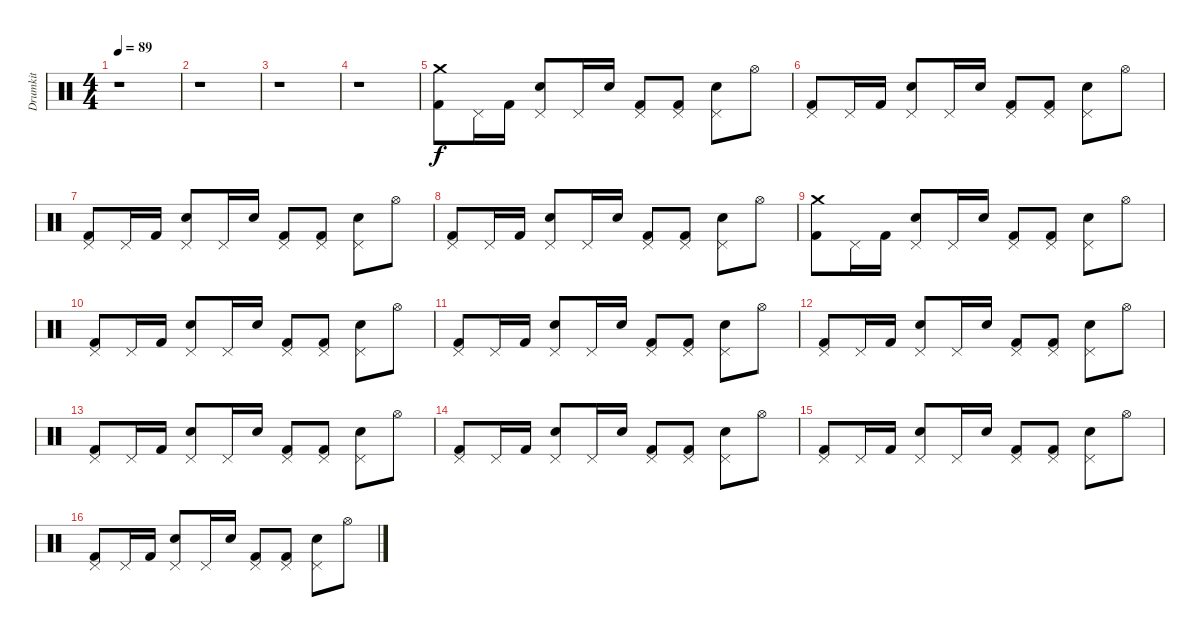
\track ("Drumkit" "Drumkit") {instrument percussion}
\staff {score}
\articulation defaults
\ts (4 4)
\tempo 89
\clef neutral
\ks c
r.1{dy f} |
r.1 |
r.1 |
r.1 |
("Crash medium (hit)" "Kick (hit) 2").8 "Pedal Hi-Hat (hit)".16 "Kick (hit) 2".16 ("Snare (hit) 2" "Pedal Hi-Hat (hit)").8 "Pedal Hi-Hat (hit)".16 "Snare (hit) 2".16 ("Pedal Hi-Hat (hit)" "Kick (hit) 2").8 ("Pedal Hi-Hat (hit)" "Kick (hit) 2").8 ("Pedal Hi-Hat (hit)" "Snare (hit) 2").8 "Hi-Hat (open)".8 |
("Pedal Hi-Hat (hit)" "Kick (hit) 2").8 "Pedal Hi-Hat (hit)".16 "Kick (hit) 2".16 ("Pedal Hi-Hat (hit)" "Snare (hit) 2").8 "Pedal Hi-Hat (hit)".16 "Snare (hit) 2".16 ("Pedal Hi-Hat (hit)" "Kick (hit) 2").8 ("Pedal Hi-Hat (hit)" "Kick (hit) 2").8 ("Pedal Hi-Hat (hit)" "Snare (hit) 2").8 "Hi-Hat (open)".8 |
("Pedal Hi-Hat (hit)" "Kick (hit) 2").8 "Pedal Hi-Hat (hit)".16 "Kick (hit) 2".16 ("Pedal Hi-Hat (hit)" "Snare (hit) 2").8 "Pedal Hi-Hat (hit)".16 "Snare (hit) 2".16 ("Pedal Hi-Hat (hit)" "Kick (hit) 2").8 ("Pedal Hi-Hat (hit)" "Kick (hit) 2").8 ("Pedal Hi-Hat (hit)" "Snare (hit) 2").8 "Hi-Hat (open)".8 |
("Pedal Hi-Hat (hit)" "Kick (hit) 2").8 "Pedal Hi-Hat (hit)".16 "Kick (hit) 2".16 ("Pedal Hi-Hat (hit)" "Snare (hit) 2").8 "Pedal Hi-Hat (hit)".16 "Snare (hit) 2".16 ("Pedal Hi-Hat (hit)" "Kick (hit) 2").8 ("Pedal Hi-Hat (hit)" "Kick (hit) 2").8 ("Pedal Hi-Hat (hit)" "Snare (hit) 2").8 "Hi-Hat (open)".8 |
("Crash medium (hit)" "Kick (hit) 2").8 "Pedal Hi-Hat (hit)".16 "Kick (hit) 2".16 ("Pedal Hi-Hat (hit)" "Snare (hit) 2").8 "Pedal Hi-Hat (hit)".16 "Snare (hit) 2".16 ("Pedal Hi-Hat (hit)" "Kick (hit) 2").8 ("Pedal Hi-Hat (hit)" "Kick (hit) 2").8 ("Pedal Hi-Hat (hit)" "Snare (hit) 2").8 "Hi-Hat (open)".8 |
("Pedal Hi-Hat (hit)" "Kick (hit) 2").8 "Pedal Hi-Hat (hit)".16 "Kick (hit) 2".16 ("Pedal Hi-Hat (hit)" "Snare (hit) 2").8 "Pedal Hi-Hat (hit)".16 "Snare (hit) 2".16 ("Pedal Hi-Hat (hit)" "Kick (hit) 2").8 ("Pedal Hi-Hat (hit)" "Kick (hit) 2").8 ("Pedal Hi-Hat (hit)" "Snare (hit) 2").8 "Hi-Hat (open)".8 |
("Pedal Hi-Hat (hit)" "Kick (hit) 2").8 "Pedal Hi-Hat (hit)".16 "Kick (hit) 2".16 ("Pedal Hi-Hat (hit)" "Snare (hit) 2").8 "Pedal Hi-Hat (hit)".16 "Snare (hit) 2".16 ("Pedal Hi-Hat (hit)" "Kick (hit) 2").8 ("Pedal Hi-Hat (hit)" "Kick (hit) 2").8 ("Pedal Hi-Hat (hit)" "Snare (hit) 2").8 "Hi-Hat (open)".8 |
("Pedal Hi-Hat (hit)" "Kick (hit) 2").8 "Pedal Hi-Hat (hit)".16 "Kick (hit) 2".16 ("Pedal Hi-Hat (hit)" "Snare (hit) 2").8 "Pedal Hi-Hat (hit)".16 "Snare (hit) 2".16 ("Pedal Hi-Hat (hit)" "Kick (hit) 2").8 ("Pedal Hi-Hat (hit)" "Kick (hit) 2").8 ("Pedal Hi-Hat (hit)" "Snare (hit) 2").8 "Hi-Hat (open)".8 |
("Pedal Hi-Hat (hit)" "Kick (hit) 2").8 "Pedal Hi-Hat (hit)".16 "Kick (hit) 2".16 ("Pedal Hi-Hat (hit)" "Snare (hit) 2").8 "Pedal Hi-Hat (hit)".16 "Snare (hit) 2".16 ("Pedal Hi-Hat (hit)" "Kick (hit) 2").8 ("Pedal Hi-Hat (hit)" "Kick (hit) 2").8 ("Pedal Hi-Hat (hit)" "Snare (hit) 2").8 "Hi-Hat (open)".8 |
("Pedal Hi-Hat (hit)" "Kick (hit) 2").8 "Pedal Hi-Hat (hit)".16 "Kick (hit) 2".16 ("Pedal Hi-Hat (hit)" "Snare (hit) 2").8 "Pedal Hi-Hat (hit)".16 "Snare (hit) 2".16 ("Pedal Hi-Hat (hit)" "Kick (hit) 2").8 ("Pedal Hi-Hat (hit)" "Kick (hit) 2").8 ("Pedal Hi-Hat (hit)" "Snare (hit) 2").8 "Hi-Hat (open)".8 |
("Pedal Hi-Hat (hit)" "Kick (hit) 2").8 "Pedal Hi-Hat (hit)".16 "Kick (hit) 2".16 ("Pedal Hi-Hat (hit)" "Snare (hit) 2").8 "Pedal Hi-Hat (hit)".16 "Snare (hit) 2".16 ("Pedal Hi-Hat (hit)" "Kick (hit) 2").8 ("Pedal Hi-Hat (hit)" "Kick (hit) 2").8 ("Pedal Hi-Hat (hit)" "Snare (hit) 2").8 "Hi-Hat (open)".8 |
("Pedal Hi-Hat (hit)" "Kick (hit) 2").8 "Pedal Hi-Hat (hit)".16 "Kick (hit) 2".16 ("Pedal Hi-Hat (hit)" "Snare (hit) 2").8 "Pedal Hi-Hat (hit)".16 "Snare (hit) 2".16 ("Pedal Hi-Hat (hit)" "Kick (hit) 2").8 ("Pedal Hi-Hat (hit)" "Kick (hit) 2").8 ("Pedal Hi-Hat (hit)" "Snare (hit) 2").8 "Hi-Hat (open)".8
